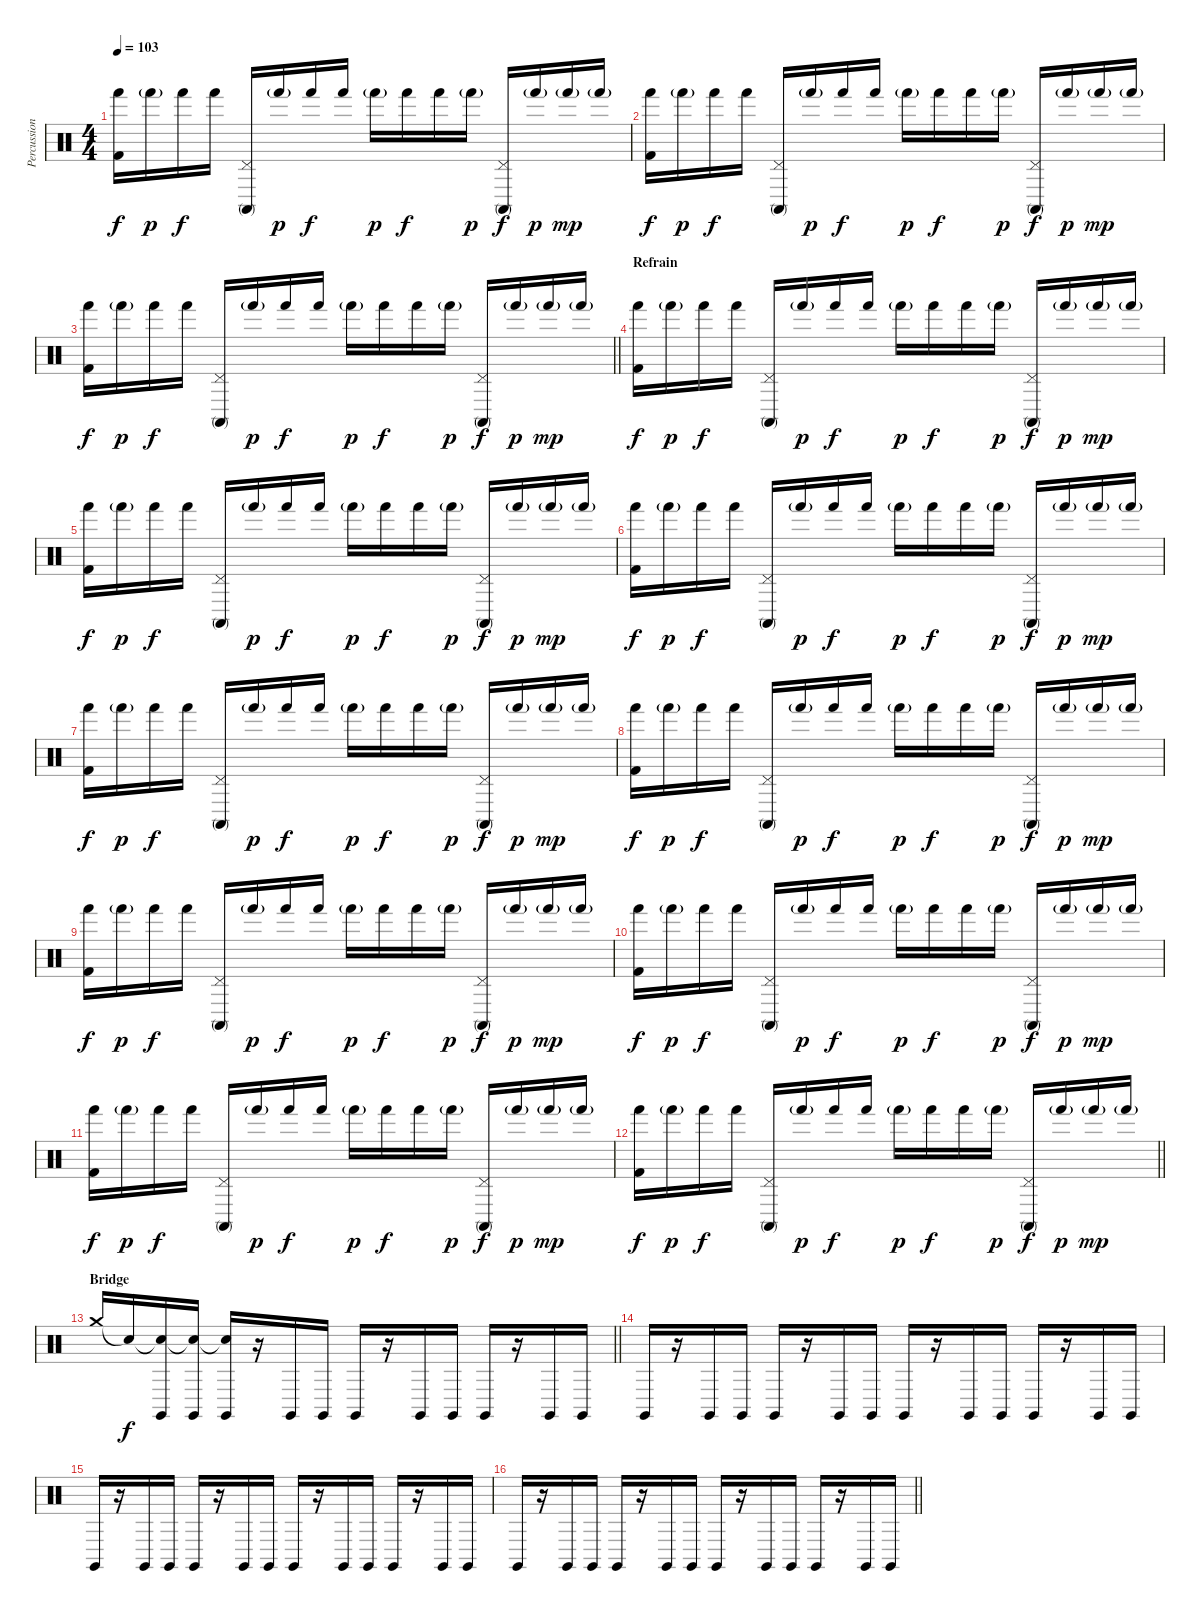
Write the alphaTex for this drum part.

\track ("Percussions" "Percussion") {instrument percussion}
\staff {score}
\articulation defaults
\ts (4 4)
\tempo 103
\clef neutral
\ks c
("Hand (hit)" "Kick (hit) 2").16{dy f} "Hand (hit)"{g}.16{dy p} "Hand (hit)".16{dy f} "Hand (hit)".16 ("Pedal Hi-Hat (hit)" "Conga high (mute)").16 "Hand (hit)"{g}.16{dy p} "Hand (hit)".16{dy f} "Hand (hit)".16 "Hand (hit)"{g}.16{dy p} "Hand (hit)".16{dy f} "Hand (hit)".16 "Hand (hit)"{g}.16{dy p} ("Pedal Hi-Hat (hit)" "Conga high (mute)").16{dy f} "Hand (hit)"{g}.16{dy p} "Hand (hit)"{g}.16{dy mp} "Hand (hit)"{g}.16 |
("Hand (hit)" "Kick (hit) 2").16{dy f} "Hand (hit)"{g}.16{dy p} "Hand (hit)".16{dy f} "Hand (hit)".16 ("Pedal Hi-Hat (hit)" "Conga high (mute)").16 "Hand (hit)"{g}.16{dy p} "Hand (hit)".16{dy f} "Hand (hit)".16 "Hand (hit)"{g}.16{dy p} "Hand (hit)".16{dy f} "Hand (hit)".16 "Hand (hit)"{g}.16{dy p} ("Pedal Hi-Hat (hit)" "Conga high (mute)").16{dy f} "Hand (hit)"{g}.16{dy p} "Hand (hit)"{g}.16{dy mp} "Hand (hit)"{g}.16 |
\barLineRight lightlight
("Hand (hit)" "Kick (hit) 2").16{dy f} "Hand (hit)"{g}.16{dy p} "Hand (hit)".16{dy f} "Hand (hit)".16 ("Pedal Hi-Hat (hit)" "Conga high (mute)").16 "Hand (hit)"{g}.16{dy p} "Hand (hit)".16{dy f} "Hand (hit)".16 "Hand (hit)"{g}.16{dy p} "Hand (hit)".16{dy f} "Hand (hit)".16 "Hand (hit)"{g}.16{dy p} ("Pedal Hi-Hat (hit)" "Conga high (mute)").16{dy f} "Hand (hit)"{g}.16{dy p} "Hand (hit)"{g}.16{dy mp} "Hand (hit)"{g}.16 |
\section ("" "Refrain")
("Hand (hit)" "Kick (hit) 2").16{dy f} "Hand (hit)"{g}.16{dy p} "Hand (hit)".16{dy f} "Hand (hit)".16 ("Pedal Hi-Hat (hit)" "Conga high (mute)").16 "Hand (hit)"{g}.16{dy p} "Hand (hit)".16{dy f} "Hand (hit)".16 "Hand (hit)"{g}.16{dy p} "Hand (hit)".16{dy f} "Hand (hit)".16 "Hand (hit)"{g}.16{dy p} ("Pedal Hi-Hat (hit)" "Conga high (mute)").16{dy f} "Hand (hit)"{g}.16{dy p} "Hand (hit)"{g}.16{dy mp} "Hand (hit)"{g}.16 |
("Hand (hit)" "Kick (hit) 2").16{dy f} "Hand (hit)"{g}.16{dy p} "Hand (hit)".16{dy f} "Hand (hit)".16 ("Pedal Hi-Hat (hit)" "Conga high (mute)").16 "Hand (hit)"{g}.16{dy p} "Hand (hit)".16{dy f} "Hand (hit)".16 "Hand (hit)"{g}.16{dy p} "Hand (hit)".16{dy f} "Hand (hit)".16 "Hand (hit)"{g}.16{dy p} ("Pedal Hi-Hat (hit)" "Conga high (mute)").16{dy f} "Hand (hit)"{g}.16{dy p} "Hand (hit)"{g}.16{dy mp} "Hand (hit)"{g}.16 |
("Hand (hit)" "Kick (hit) 2").16{dy f} "Hand (hit)"{g}.16{dy p} "Hand (hit)".16{dy f} "Hand (hit)".16 ("Pedal Hi-Hat (hit)" "Conga high (mute)").16 "Hand (hit)"{g}.16{dy p} "Hand (hit)".16{dy f} "Hand (hit)".16 "Hand (hit)"{g}.16{dy p} "Hand (hit)".16{dy f} "Hand (hit)".16 "Hand (hit)"{g}.16{dy p} ("Pedal Hi-Hat (hit)" "Conga high (mute)").16{dy f} "Hand (hit)"{g}.16{dy p} "Hand (hit)"{g}.16{dy mp} "Hand (hit)"{g}.16 |
("Hand (hit)" "Kick (hit) 2").16{dy f} "Hand (hit)"{g}.16{dy p} "Hand (hit)".16{dy f} "Hand (hit)".16 ("Pedal Hi-Hat (hit)" "Conga high (mute)").16 "Hand (hit)"{g}.16{dy p} "Hand (hit)".16{dy f} "Hand (hit)".16 "Hand (hit)"{g}.16{dy p} "Hand (hit)".16{dy f} "Hand (hit)".16 "Hand (hit)"{g}.16{dy p} ("Pedal Hi-Hat (hit)" "Conga high (mute)").16{dy f} "Hand (hit)"{g}.16{dy p} "Hand (hit)"{g}.16{dy mp} "Hand (hit)"{g}.16 |
("Hand (hit)" "Kick (hit) 2").16{dy f} "Hand (hit)"{g}.16{dy p} "Hand (hit)".16{dy f} "Hand (hit)".16 ("Pedal Hi-Hat (hit)" "Conga high (mute)").16 "Hand (hit)"{g}.16{dy p} "Hand (hit)".16{dy f} "Hand (hit)".16 "Hand (hit)"{g}.16{dy p} "Hand (hit)".16{dy f} "Hand (hit)".16 "Hand (hit)"{g}.16{dy p} ("Pedal Hi-Hat (hit)" "Conga high (mute)").16{dy f} "Hand (hit)"{g}.16{dy p} "Hand (hit)"{g}.16{dy mp} "Hand (hit)"{g}.16 |
("Hand (hit)" "Kick (hit) 2").16{dy f} "Hand (hit)"{g}.16{dy p} "Hand (hit)".16{dy f} "Hand (hit)".16 ("Pedal Hi-Hat (hit)" "Conga high (mute)").16 "Hand (hit)"{g}.16{dy p} "Hand (hit)".16{dy f} "Hand (hit)".16 "Hand (hit)"{g}.16{dy p} "Hand (hit)".16{dy f} "Hand (hit)".16 "Hand (hit)"{g}.16{dy p} ("Pedal Hi-Hat (hit)" "Conga high (mute)").16{dy f} "Hand (hit)"{g}.16{dy p} "Hand (hit)"{g}.16{dy mp} "Hand (hit)"{g}.16 |
("Hand (hit)" "Kick (hit) 2").16{dy f} "Hand (hit)"{g}.16{dy p} "Hand (hit)".16{dy f} "Hand (hit)".16 ("Pedal Hi-Hat (hit)" "Conga high (mute)").16 "Hand (hit)"{g}.16{dy p} "Hand (hit)".16{dy f} "Hand (hit)".16 "Hand (hit)"{g}.16{dy p} "Hand (hit)".16{dy f} "Hand (hit)".16 "Hand (hit)"{g}.16{dy p} ("Pedal Hi-Hat (hit)" "Conga high (mute)").16{dy f} "Hand (hit)"{g}.16{dy p} "Hand (hit)"{g}.16{dy mp} "Hand (hit)"{g}.16 |
("Hand (hit)" "Kick (hit) 2").16{dy f} "Hand (hit)"{g}.16{dy p} "Hand (hit)".16{dy f} "Hand (hit)".16 ("Pedal Hi-Hat (hit)" "Conga high (mute)").16 "Hand (hit)"{g}.16{dy p} "Hand (hit)".16{dy f} "Hand (hit)".16 "Hand (hit)"{g}.16{dy p} "Hand (hit)".16{dy f} "Hand (hit)".16 "Hand (hit)"{g}.16{dy p} ("Pedal Hi-Hat (hit)" "Conga high (mute)").16{dy f} "Hand (hit)"{g}.16{dy p} "Hand (hit)"{g}.16{dy mp} "Hand (hit)"{g}.16 |
\barLineRight lightlight
("Hand (hit)" "Kick (hit) 2").16{dy f} "Hand (hit)"{g}.16{dy p} "Hand (hit)".16{dy f} "Hand (hit)".16 ("Pedal Hi-Hat (hit)" "Conga high (mute)").16 "Hand (hit)"{g}.16{dy p} "Hand (hit)".16{dy f} "Hand (hit)".16 "Hand (hit)"{g}.16{dy p} "Hand (hit)".16{dy f} "Hand (hit)".16 "Hand (hit)"{g}.16{dy p} ("Pedal Hi-Hat (hit)" "Conga high (mute)").16{dy f} "Hand (hit)"{g}.16{dy p} "Hand (hit)"{g}.16{dy mp} "Hand (hit)"{g}.16 |
\section ("" "Bridge")
\barLineRight lightlight "Crash medium (hit)".16 "Snare (hit)"{t}.16{dy f}
("Snare (hit)"{t} "Claves (hit)").16 ("Snare (hit)"{t} "Claves (hit)").16 ("Snare (hit)"{t} "Claves (hit)").16 r.16 "Claves (hit)".16 "Claves (hit)".16 "Claves (hit)".16 r.16 "Claves (hit)".16 "Claves (hit)".16 "Claves (hit)".16 r.16 "Claves (hit)".16 "Claves (hit)".16 |
"Claves (hit)".16 r.16 "Claves (hit)".16 "Claves (hit)".16 "Claves (hit)".16 r.16 "Claves (hit)".16 "Claves (hit)".16 "Claves (hit)".16 r.16 "Claves (hit)".16 "Claves (hit)".16 "Claves (hit)".16 r.16 "Claves (hit)".16 "Claves (hit)".16 |
"Claves (hit)".16 r.16 "Claves (hit)".16 "Claves (hit)".16 "Claves (hit)".16 r.16 "Claves (hit)".16 "Claves (hit)".16 "Claves (hit)".16 r.16 "Claves (hit)".16 "Claves (hit)".16 "Claves (hit)".16 r.16 "Claves (hit)".16 "Claves (hit)".16 |
\barLineRight lightlight "Claves (hit)".16
r.16 "Claves (hit)".16 "Claves (hit)".16 "Claves (hit)".16 r.16 "Claves (hit)".16 "Claves (hit)".16 "Claves (hit)".16 r.16 "Claves (hit)".16 "Claves (hit)".16 "Claves (hit)".16 r.16 "Claves (hit)".16 "Claves (hit)".16
